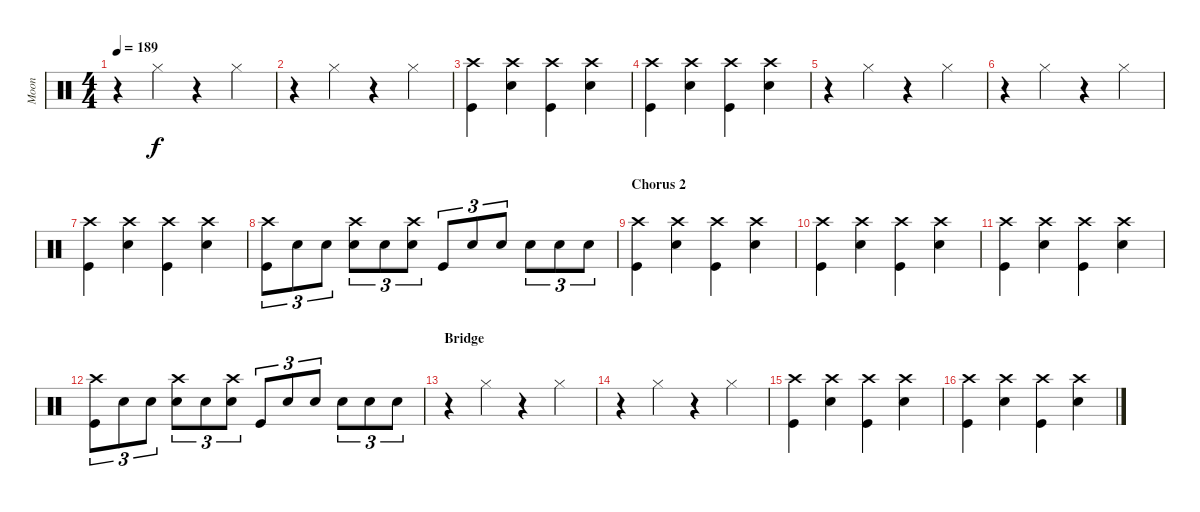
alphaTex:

\track ("Moon" "Moon") {instrument percussion}
\staff {score}
\articulation defaults
\ts (4 4)
\tempo 189
\clef neutral
\ks c
r.4{dy f} "Hi-Hat (closed)".4 r.4 "Hi-Hat (closed)".4 |
r.4 "Hi-Hat (closed)".4 r.4 "Hi-Hat (closed)".4 |
("Crash high (hit)" "Kick (hit)").4 ("Crash high (hit)" "Snare (hit) 2").4 ("Crash high (hit)" "Kick (hit)").4 ("Crash high (hit)" "Snare (hit) 2").4 |
("Crash high (hit)" "Kick (hit)").4 ("Crash high (hit)" "Snare (hit) 2").4 ("Crash high (hit)" "Kick (hit)").4 ("Crash high (hit)" "Snare (hit) 2").4 |
r.4 "Hi-Hat (closed)".4 r.4 "Hi-Hat (closed)".4 |
r.4 "Hi-Hat (closed)".4 r.4 "Hi-Hat (closed)".4 |
("Crash high (hit)" "Kick (hit)").4 ("Crash high (hit)" "Snare (hit) 2").4 ("Crash high (hit)" "Kick (hit)").4 ("Crash high (hit)" "Snare (hit) 2").4 |
("Crash high (hit)" "Kick (hit)").8{tu (3 2)} "Snare (hit) 2".8{tu (3 2)} "Snare (hit) 2".8{tu (3 2)} ("Crash high (hit)" "Snare (hit) 2").8{tu (3 2)} "Snare (hit) 2".8{tu (3 2)} ("Crash high (hit)" "Snare (hit) 2").8{tu (3 2)} "Kick (hit)".8{tu (3 2)} "Snare (hit) 2".8{tu (3 2)} "Snare (hit) 2".8{tu (3 2)} "Snare (hit) 2".8{tu (3 2)} "Snare (hit) 2".8{tu (3 2)} "Snare (hit) 2".8{tu (3 2)} |
\section ("" "Chorus 2")
("Crash high (hit)" "Kick (hit)").4 ("Crash high (hit)" "Snare (hit) 2").4 ("Crash high (hit)" "Kick (hit)").4 ("Crash high (hit)" "Snare (hit) 2").4 |
("Crash high (hit)" "Kick (hit)").4 ("Crash high (hit)" "Snare (hit) 2").4 ("Crash high (hit)" "Kick (hit)").4 ("Crash high (hit)" "Snare (hit) 2").4 |
("Crash high (hit)" "Kick (hit)").4 ("Crash high (hit)" "Snare (hit) 2").4 ("Crash high (hit)" "Kick (hit)").4 ("Crash high (hit)" "Snare (hit) 2").4 |
("Crash high (hit)" "Kick (hit)").8{tu (3 2)} "Snare (hit) 2".8{tu (3 2)} "Snare (hit) 2".8{tu (3 2)} ("Crash high (hit)" "Snare (hit) 2").8{tu (3 2)} "Snare (hit) 2".8{tu (3 2)} ("Crash high (hit)" "Snare (hit) 2").8{tu (3 2)} "Kick (hit)".8{tu (3 2)} "Snare (hit) 2".8{tu (3 2)} "Snare (hit) 2".8{tu (3 2)} "Snare (hit) 2".8{tu (3 2)} "Snare (hit) 2".8{tu (3 2)} "Snare (hit) 2".8{tu (3 2)} |
\section ("" "Bridge")
r.4 "Hi-Hat (closed)".4 r.4 "Hi-Hat (closed)".4 |
r.4 "Hi-Hat (closed)".4 r.4 "Hi-Hat (closed)".4 |
("Crash high (hit)" "Kick (hit)").4 ("Crash high (hit)" "Snare (hit) 2").4 ("Crash high (hit)" "Kick (hit)").4 ("Crash high (hit)" "Snare (hit) 2").4 |
("Crash high (hit)" "Kick (hit)").4 ("Crash high (hit)" "Snare (hit) 2").4 ("Crash high (hit)" "Kick (hit)").4 ("Crash high (hit)" "Snare (hit) 2").4
